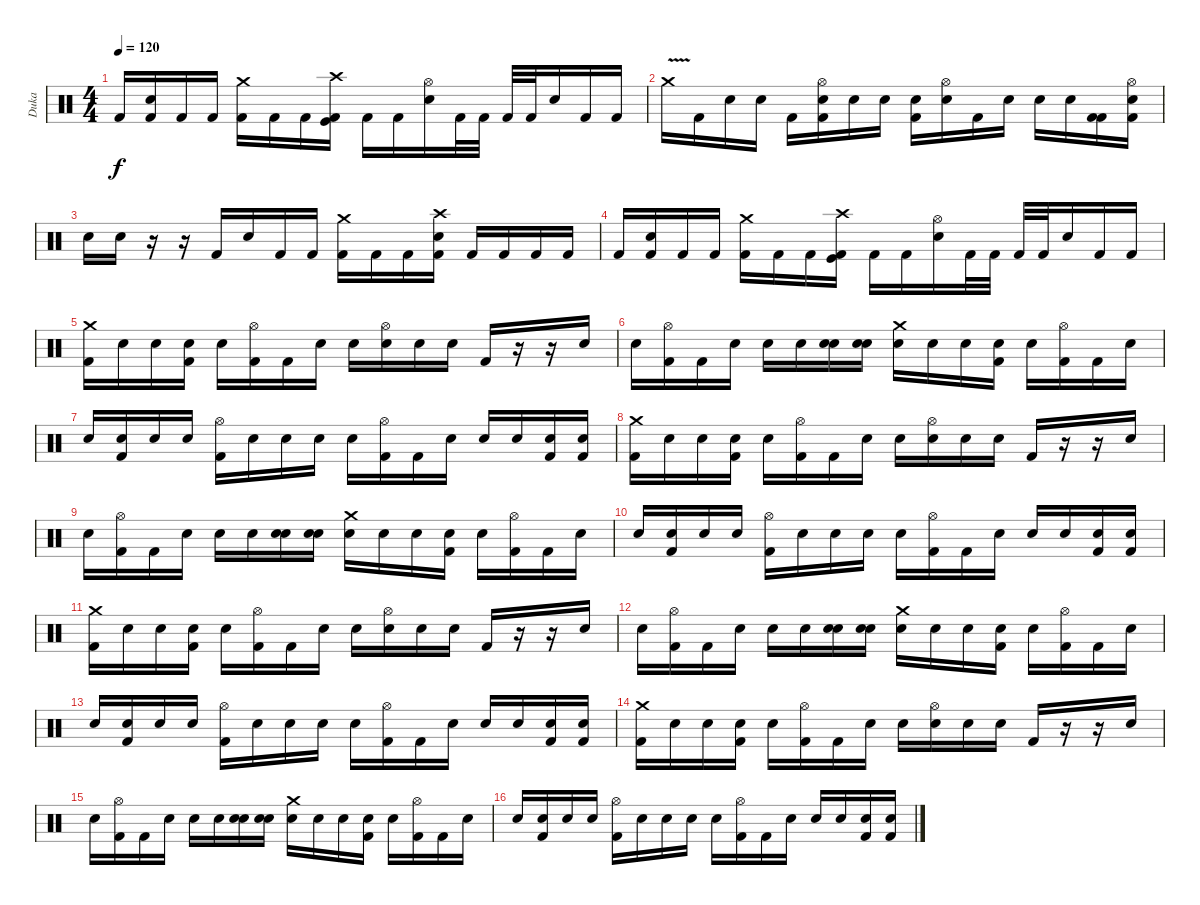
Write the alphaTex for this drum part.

\track ("Duka" "Duka") {instrument percussion}
\staff {score}
\articulation defaults
\ts (4 4)
\tempo 120
\clef neutral
\ks c "Kick (hit) 2".16{dy f}
("Snare (hit) 2" "Kick (hit) 2").16 "Kick (hit) 2".16 "Kick (hit) 2".16 ("Crash medium (hit)" "Kick (hit) 2").16 "Kick (hit) 2".16 "Kick (hit) 2".16 ("Crash high (hit)" "Kick (hit)" "Kick (hit) 2").16 "Kick (hit) 2".16 "Kick (hit) 2".16 ("Hi-Hat (open)" "Snare (hit) 2").16 "Kick (hit) 2".32 "Kick (hit) 2".32 "Kick (hit) 2".32 "Kick (hit) 2".32 "Snare (hit) 2".16 "Kick (hit) 2".16 "Kick (hit) 2".16 |
"Crash medium (hit)"{v}.16 "Kick (hit) 2".16 "Snare (hit)".16 "Snare (hit) 2".16 "Kick (hit) 2".16 ("Hi-Hat (open)" "Snare (hit)" "Kick (hit) 2").16 "Snare (hit)".16 "Snare (hit)".16 ("Snare (hit)" "Kick (hit) 2").16 ("Hi-Hat (open)" "Snare (hit) 2").16 "Kick (hit) 2".16 "Snare (hit)".16 "Snare (hit)".16 "Snare (hit)".16 ("Kick (hit) 2" "Kick (hit) 2").16 ("Hi-Hat (open)" "Snare (hit) 2" "Kick (hit) 2").16 |
"Snare (hit)".16 "Snare (hit)".16 r.16 r.16 "Kick (hit) 2".16 "Snare (hit) 2".16 "Kick (hit) 2".16 "Kick (hit) 2".16 ("Kick (hit) 2" "Crash medium (hit)").16 "Kick (hit) 2".16 "Kick (hit) 2".16 ("Crash high (hit)" "Snare (hit) 2" "Kick (hit) 2").16 "Kick (hit) 2".16 "Kick (hit) 2".16 "Kick (hit) 2".16 "Kick (hit) 2".16 |
"Kick (hit) 2".16 ("Snare (hit) 2" "Kick (hit) 2").16 "Kick (hit) 2".16 "Kick (hit) 2".16 ("Crash medium (hit)" "Kick (hit) 2").16 "Kick (hit) 2".16 "Kick (hit) 2".16 ("Crash high (hit)" "Kick (hit)" "Kick (hit) 2").16 "Kick (hit) 2".16 "Kick (hit) 2".16 ("Hi-Hat (open)" "Snare (hit) 2").16 "Kick (hit) 2".32 "Kick (hit) 2".32 "Kick (hit) 2".32 "Kick (hit) 2".32 "Snare (hit) 2".16 "Kick (hit) 2".16 "Kick (hit) 2".16 |
("Crash medium (hit)" "Kick (hit) 2").16 "Snare (hit)".16 "Snare (hit)".16 ("Snare (hit) 2" "Kick (hit) 2").16 "Snare (hit)".16 ("Hi-Hat (open)" "Kick (hit) 2").16 "Kick (hit) 2".16 "Snare (hit)".16 "Snare (hit)".16 ("Hi-Hat (open)" "Snare (hit) 2").16 "Snare (hit)".16 "Snare (hit)".16 "Kick (hit) 2".16 r.16 r.16 "Snare (hit) 2".16 |
"Snare (hit)".16 ("Hi-Hat (open)" "Kick (hit) 2").16 "Kick (hit) 2".16 "Snare (hit)".16 "Snare (hit)".16 "Snare (hit) 2".16 ("Snare (hit) 2" "Snare (hit)").16 ("Snare (hit) 2" "Snare (hit)").16 ("Snare (hit) 2" "Crash medium (hit)").16 "Snare (hit)".16 "Snare (hit)".16 ("Snare (hit) 2" "Kick (hit) 2").16 "Snare (hit)".16 ("Hi-Hat (open)" "Kick (hit) 2").16 "Kick (hit) 2".16 "Snare (hit)".16 |
"Snare (hit)".16 ("Snare (hit) 2" "Kick (hit) 2").16 "Snare (hit)".16 "Snare (hit)".16 ("Kick (hit) 2" "Hi-Hat (open)").16 "Snare (hit)".16 "Snare (hit)".16 "Snare (hit) 2".16 "Snare (hit)".16 ("Hi-Hat (open)" "Kick (hit) 2").16 "Kick (hit) 2".16 "Snare (hit)".16 "Snare (hit)".16 "Snare (hit) 2".16 ("Kick (hit) 2" "Snare (hit)").16 ("Kick (hit) 2" "Snare (hit)").16 |
("Crash medium (hit)" "Kick (hit) 2").16 "Snare (hit)".16 "Snare (hit)".16 ("Snare (hit) 2" "Kick (hit) 2").16 "Snare (hit)".16 ("Hi-Hat (open)" "Kick (hit) 2").16 "Kick (hit) 2".16 "Snare (hit)".16 "Snare (hit)".16 ("Hi-Hat (open)" "Snare (hit) 2").16 "Snare (hit)".16 "Snare (hit)".16 "Kick (hit) 2".16 r.16 r.16 "Snare (hit) 2".16 |
"Snare (hit)".16 ("Hi-Hat (open)" "Kick (hit) 2").16 "Kick (hit) 2".16 "Snare (hit)".16 "Snare (hit)".16 "Snare (hit) 2".16 ("Snare (hit) 2" "Snare (hit)").16 ("Snare (hit) 2" "Snare (hit)").16 ("Snare (hit) 2" "Crash medium (hit)").16 "Snare (hit)".16 "Snare (hit)".16 ("Snare (hit) 2" "Kick (hit) 2").16 "Snare (hit)".16 ("Hi-Hat (open)" "Kick (hit) 2").16 "Kick (hit) 2".16 "Snare (hit)".16 |
"Snare (hit)".16 ("Snare (hit) 2" "Kick (hit) 2").16 "Snare (hit)".16 "Snare (hit)".16 ("Kick (hit) 2" "Hi-Hat (open)").16 "Snare (hit)".16 "Snare (hit)".16 "Snare (hit) 2".16 "Snare (hit)".16 ("Hi-Hat (open)" "Kick (hit) 2").16 "Kick (hit) 2".16 "Snare (hit)".16 "Snare (hit)".16 "Snare (hit) 2".16 ("Kick (hit) 2" "Snare (hit)").16 ("Kick (hit) 2" "Snare (hit)").16 |
("Crash medium (hit)" "Kick (hit) 2").16 "Snare (hit)".16 "Snare (hit)".16 ("Snare (hit) 2" "Kick (hit) 2").16 "Snare (hit)".16 ("Hi-Hat (open)" "Kick (hit) 2").16 "Kick (hit) 2".16 "Snare (hit)".16 "Snare (hit)".16 ("Hi-Hat (open)" "Snare (hit) 2").16 "Snare (hit)".16 "Snare (hit)".16 "Kick (hit) 2".16 r.16 r.16 "Snare (hit) 2".16 |
"Snare (hit)".16 ("Hi-Hat (open)" "Kick (hit) 2").16 "Kick (hit) 2".16 "Snare (hit)".16 "Snare (hit)".16 "Snare (hit) 2".16 ("Snare (hit) 2" "Snare (hit)").16 ("Snare (hit) 2" "Snare (hit)").16 ("Snare (hit) 2" "Crash medium (hit)").16 "Snare (hit)".16 "Snare (hit)".16 ("Snare (hit) 2" "Kick (hit) 2").16 "Snare (hit)".16 ("Hi-Hat (open)" "Kick (hit) 2").16 "Kick (hit) 2".16 "Snare (hit)".16 |
"Snare (hit)".16 ("Snare (hit) 2" "Kick (hit) 2").16 "Snare (hit)".16 "Snare (hit)".16 ("Kick (hit) 2" "Hi-Hat (open)").16 "Snare (hit)".16 "Snare (hit)".16 "Snare (hit) 2".16 "Snare (hit)".16 ("Hi-Hat (open)" "Kick (hit) 2").16 "Kick (hit) 2".16 "Snare (hit)".16 "Snare (hit)".16 "Snare (hit) 2".16 ("Kick (hit) 2" "Snare (hit)").16 ("Kick (hit) 2" "Snare (hit)").16 |
("Crash medium (hit)" "Kick (hit) 2").16 "Snare (hit)".16 "Snare (hit)".16 ("Snare (hit) 2" "Kick (hit) 2").16 "Snare (hit)".16 ("Hi-Hat (open)" "Kick (hit) 2").16 "Kick (hit) 2".16 "Snare (hit)".16 "Snare (hit)".16 ("Hi-Hat (open)" "Snare (hit) 2").16 "Snare (hit)".16 "Snare (hit)".16 "Kick (hit) 2".16 r.16 r.16 "Snare (hit) 2".16 |
"Snare (hit)".16 ("Hi-Hat (open)" "Kick (hit) 2").16 "Kick (hit) 2".16 "Snare (hit)".16 "Snare (hit)".16 "Snare (hit) 2".16 ("Snare (hit) 2" "Snare (hit)").16 ("Snare (hit) 2" "Snare (hit)").16 ("Snare (hit) 2" "Crash medium (hit)").16 "Snare (hit)".16 "Snare (hit)".16 ("Snare (hit) 2" "Kick (hit) 2").16 "Snare (hit)".16 ("Hi-Hat (open)" "Kick (hit) 2").16 "Kick (hit) 2".16 "Snare (hit)".16 |
"Snare (hit)".16 ("Snare (hit) 2" "Kick (hit) 2").16 "Snare (hit)".16 "Snare (hit)".16 ("Kick (hit) 2" "Hi-Hat (open)").16 "Snare (hit)".16 "Snare (hit)".16 "Snare (hit) 2".16 "Snare (hit)".16 ("Hi-Hat (open)" "Kick (hit) 2").16 "Kick (hit) 2".16 "Snare (hit)".16 "Snare (hit)".16 "Snare (hit) 2".16 ("Kick (hit) 2" "Snare (hit)").16 ("Kick (hit) 2" "Snare (hit)").16
